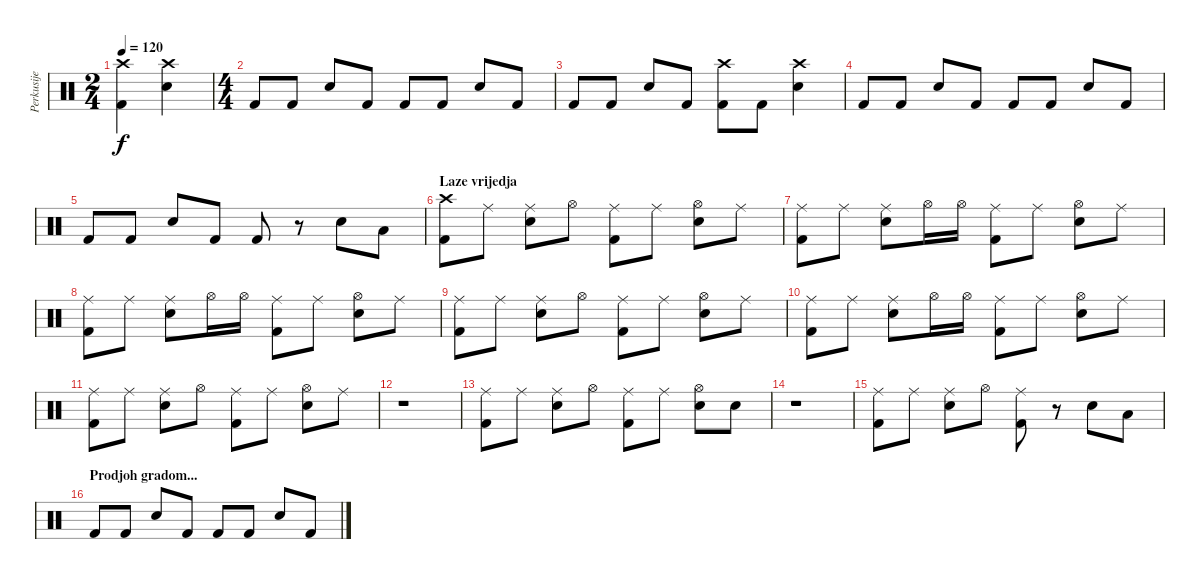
\track ("Perkusije" "Perkusije") {instrument percussion}
\staff {score}
\articulation defaults
\ts (2 4)
\tempo 120
\clef neutral
\ks c
("Crash high (hit)" "Kick (hit) 2").4{dy f} ("Crash high (hit)" "Electric Snare (hit)").4 |
\ts (4 4)
"Kick (hit) 2".8 "Kick (hit) 2".8 "Electric Snare (hit)".8 "Kick (hit) 2".8 "Kick (hit) 2".8 "Kick (hit) 2".8 "Electric Snare (hit)".8 "Kick (hit) 2".8 |
"Kick (hit) 2".8 "Kick (hit) 2".8 "Electric Snare (hit)".8 "Kick (hit) 2".8 ("Crash high (hit)" "Kick (hit) 2").8 "Kick (hit) 2".8 ("Crash high (hit)" "Electric Snare (hit)").4 |
"Kick (hit) 2".8 "Kick (hit) 2".8 "Electric Snare (hit)".8 "Kick (hit) 2".8 "Kick (hit) 2".8 "Kick (hit) 2".8 "Electric Snare (hit)".8 "Kick (hit) 2".8 |
"Kick (hit) 2".8 "Kick (hit) 2".8 "Electric Snare (hit)".8 "Kick (hit) 2".8 "Kick (hit) 2".8 r.8 "Electric Snare (hit)".8 "Low Floor Tom (hit)".8 |
\section ("" "Laze vrijedja")
("Crash high (hit)" "Kick (hit) 2").8 "Ride (middle)".8 ("Ride (middle)" "Electric Snare (hit)").8 "Hi-Hat (open)".8 ("Ride (middle)" "Kick (hit) 2").8 "Ride (middle)".8 ("Hi-Hat (open)" "Electric Snare (hit)").8 "Ride (middle)".8 |
("Ride (middle)" "Kick (hit) 2").8 "Ride (middle)".8 ("Ride (middle)" "Electric Snare (hit)").8 "Hi-Hat (open)".16 "Hi-Hat (open)".16 ("Ride (middle)" "Kick (hit) 2").8 "Ride (middle)".8 ("Hi-Hat (open)" "Electric Snare (hit)").8 "Ride (middle)".8 |
("Ride (middle)" "Kick (hit) 2").8 "Ride (middle)".8 ("Ride (middle)" "Electric Snare (hit)").8 "Hi-Hat (open)".16 "Hi-Hat (open)".16 ("Ride (middle)" "Kick (hit) 2").8 "Ride (middle)".8 ("Hi-Hat (open)" "Electric Snare (hit)").8 "Ride (middle)".8 |
("Ride (middle)" "Kick (hit) 2").8 "Ride (middle)".8 ("Ride (middle)" "Electric Snare (hit)").8 "Hi-Hat (open)".8 ("Ride (middle)" "Kick (hit) 2").8 "Ride (middle)".8 ("Hi-Hat (open)" "Electric Snare (hit)").8 "Ride (middle)".8 |
("Ride (middle)" "Kick (hit) 2").8 "Ride (middle)".8 ("Ride (middle)" "Electric Snare (hit)").8 "Hi-Hat (open)".16 "Hi-Hat (open)".16 ("Ride (middle)" "Kick (hit) 2").8 "Ride (middle)".8 ("Hi-Hat (open)" "Electric Snare (hit)").8 "Ride (middle)".8 |
("Ride (middle)" "Kick (hit) 2").8 "Ride (middle)".8 ("Ride (middle)" "Electric Snare (hit)").8 "Hi-Hat (open)".8 ("Ride (middle)" "Kick (hit) 2").8 "Ride (middle)".8 ("Hi-Hat (open)" "Electric Snare (hit)").8 "Ride (middle)".8 |
r.1 |
("Ride (middle)" "Kick (hit) 2").8 "Ride (middle)".8 ("Ride (middle)" "Electric Snare (hit)").8 "Hi-Hat (open)".8 ("Ride (middle)" "Kick (hit) 2").8 "Ride (middle)".8 ("Hi-Hat (open)" "Electric Snare (hit)").8 "Electric Snare (hit)".8 |
r.1 |
("Ride (middle)" "Kick (hit) 2").8 "Ride (middle)".8 ("Ride (middle)" "Electric Snare (hit)").8 "Hi-Hat (open)".8 ("Ride (middle)" "Kick (hit) 2").8 r.8 "Electric Snare (hit)".8 "Low Floor Tom (hit)".8 |
\section ("" "Prodjoh gradom...")
"Kick (hit) 2".8 "Kick (hit) 2".8 "Electric Snare (hit)".8 "Kick (hit) 2".8 "Kick (hit) 2".8 "Kick (hit) 2".8 "Electric Snare (hit)".8 "Kick (hit) 2".8
